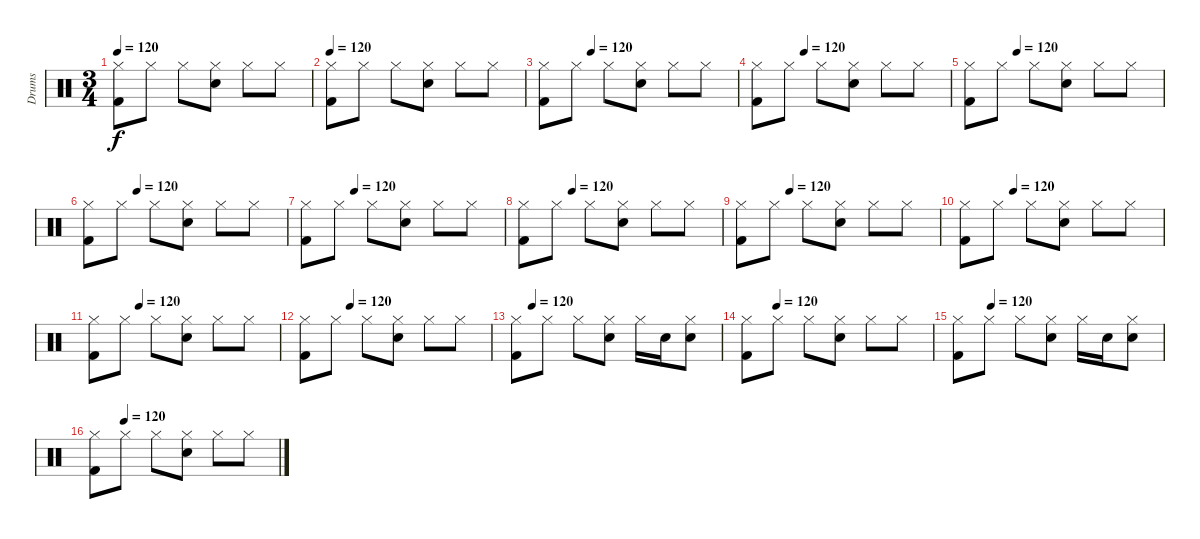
\track ("Drums" "Drums") {instrument percussion}
\staff {score}
\articulation defaults
\ts (3 4)
\tempo 120
\clef neutral
\ks c
("Hi-Hat (closed)" "Kick (hit) 2").8{dy f} "Hi-Hat (closed)".8 "Hi-Hat (closed)".8 ("Electric Snare (hit)" "Hi-Hat (closed)").8 "Hi-Hat (closed)".8 "Hi-Hat (closed)".8 |
\tempo 120
("Hi-Hat (closed)" "Kick (hit) 2").8 "Hi-Hat (closed)".8 "Hi-Hat (closed)".8 ("Electric Snare (hit)" "Hi-Hat (closed)").8 "Hi-Hat (closed)".8 "Hi-Hat (closed)".8 |
\tempo (120 0.25)
("Hi-Hat (closed)" "Kick (hit) 2").8 "Hi-Hat (closed)".8 "Hi-Hat (closed)".8 ("Electric Snare (hit)" "Hi-Hat (closed)").8 "Hi-Hat (closed)".8 "Hi-Hat (closed)".8 |
\tempo (120 0.25)
("Hi-Hat (closed)" "Kick (hit) 2").8 "Hi-Hat (closed)".8 "Hi-Hat (closed)".8 ("Electric Snare (hit)" "Hi-Hat (closed)").8 "Hi-Hat (closed)".8 "Hi-Hat (closed)".8 |
\tempo (120 0.25)
("Hi-Hat (closed)" "Kick (hit) 2").8 "Hi-Hat (closed)".8 "Hi-Hat (closed)".8 ("Electric Snare (hit)" "Hi-Hat (closed)").8 "Hi-Hat (closed)".8 "Hi-Hat (closed)".8 |
\tempo (120 0.25)
("Hi-Hat (closed)" "Kick (hit) 2").8 "Hi-Hat (closed)".8 "Hi-Hat (closed)".8 ("Electric Snare (hit)" "Hi-Hat (closed)").8 "Hi-Hat (closed)".8 "Hi-Hat (closed)".8 |
\tempo (120 0.25)
("Hi-Hat (closed)" "Kick (hit) 2").8 "Hi-Hat (closed)".8 "Hi-Hat (closed)".8 ("Electric Snare (hit)" "Hi-Hat (closed)").8 "Hi-Hat (closed)".8 "Hi-Hat (closed)".8 |
\tempo (120 0.25)
("Hi-Hat (closed)" "Kick (hit) 2").8 "Hi-Hat (closed)".8 "Hi-Hat (closed)".8 ("Electric Snare (hit)" "Hi-Hat (closed)").8 "Hi-Hat (closed)".8 "Hi-Hat (closed)".8 |
\tempo (120 0.25)
("Hi-Hat (closed)" "Kick (hit) 2").8 "Hi-Hat (closed)".8 "Hi-Hat (closed)".8 ("Electric Snare (hit)" "Hi-Hat (closed)").8 "Hi-Hat (closed)".8 "Hi-Hat (closed)".8 |
\tempo (120 0.25)
("Hi-Hat (closed)" "Kick (hit) 2").8 "Hi-Hat (closed)".8 "Hi-Hat (closed)".8 ("Electric Snare (hit)" "Hi-Hat (closed)").8 "Hi-Hat (closed)".8 "Hi-Hat (closed)".8 |
\tempo (120 0.25)
("Hi-Hat (closed)" "Kick (hit) 2").8 "Hi-Hat (closed)".8 "Hi-Hat (closed)".8 ("Electric Snare (hit)" "Hi-Hat (closed)").8 "Hi-Hat (closed)".8 "Hi-Hat (closed)".8 |
\tempo (120 0.25)
("Hi-Hat (closed)" "Kick (hit) 2").8 "Hi-Hat (closed)".8 "Hi-Hat (closed)".8 ("Electric Snare (hit)" "Hi-Hat (closed)").8 "Hi-Hat (closed)".8 "Hi-Hat (closed)".8 |
\tempo (120 0.08333333333333333)
("Hi-Hat (closed)" "Kick (hit) 2").8 "Hi-Hat (closed)".8 "Hi-Hat (closed)".8 ("Electric Snare (hit)" "Hi-Hat (closed)").8 "Hi-Hat (closed)".16 "Snare (hit) 2".16 ("Snare (hit) 2" "Hi-Hat (closed)").8 |
\tempo (120 0.16666666666666666)
("Hi-Hat (closed)" "Kick (hit) 2").8 "Hi-Hat (closed)".8 "Hi-Hat (closed)".8 ("Electric Snare (hit)" "Hi-Hat (closed)").8 "Hi-Hat (closed)".8 "Hi-Hat (closed)".8 |
\tempo (120 0.16666666666666666)
("Hi-Hat (closed)" "Kick (hit) 2").8 "Hi-Hat (closed)".8 "Hi-Hat (closed)".8 ("Electric Snare (hit)" "Hi-Hat (closed)").8 "Hi-Hat (closed)".16 "Snare (hit) 2".16 ("Snare (hit) 2" "Hi-Hat (closed)").8 |
\tempo (120 0.16666666666666666)
("Hi-Hat (closed)" "Kick (hit) 2").8 "Hi-Hat (closed)".8 "Hi-Hat (closed)".8 ("Electric Snare (hit)" "Hi-Hat (closed)").8 "Hi-Hat (closed)".8 "Hi-Hat (closed)".8
